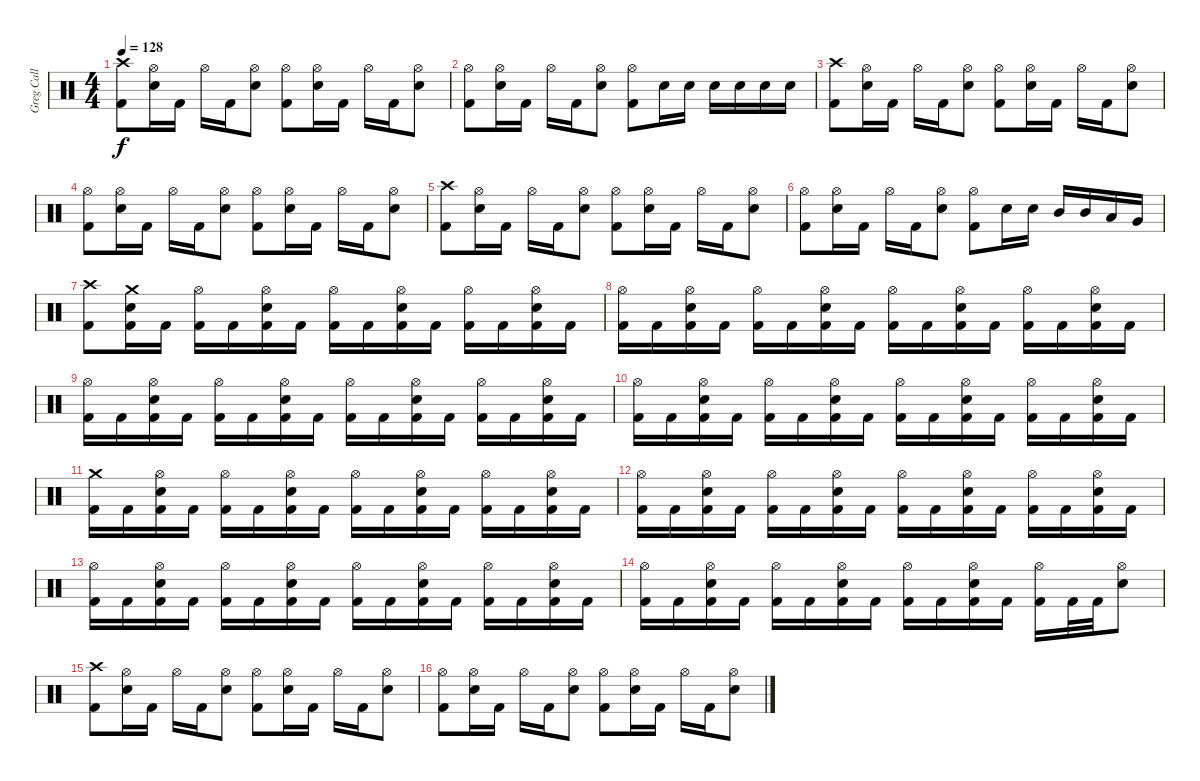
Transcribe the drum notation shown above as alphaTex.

\track ("Greg Call (Drums)" "Greg Call ") {instrument percussion}
\staff {score}
\articulation defaults
\ts (4 4)
\tempo 128
\clef neutral
\ks c
("Crash high (hit)" "Kick (hit) 2").8{dy f} ("Hi-Hat (open)" "Snare (hit) 2").16 "Kick (hit) 2".16 "Hi-Hat (open)".16 "Kick (hit) 2".16 ("Hi-Hat (open)" "Snare (hit) 2").8 ("Hi-Hat (open)" "Kick (hit) 2").8 ("Hi-Hat (open)" "Snare (hit) 2").16 "Kick (hit) 2".16 "Hi-Hat (open)".16 "Kick (hit) 2".16 ("Hi-Hat (open)" "Snare (hit) 2").8 |
("Hi-Hat (open)" "Kick (hit) 2").8 ("Hi-Hat (open)" "Snare (hit) 2").16 "Kick (hit) 2".16 "Hi-Hat (open)".16 "Kick (hit) 2".16 ("Hi-Hat (open)" "Snare (hit) 2").8 ("Hi-Hat (open)" "Kick (hit) 2").8 "Snare (hit) 2".16 "Snare (hit) 2".16 "Snare (hit) 2".16 "Snare (hit) 2".16 "Snare (hit) 2".16 "Snare (hit) 2".16 |
("Crash high (hit)" "Kick (hit) 2").8 ("Hi-Hat (open)" "Snare (hit) 2").16 "Kick (hit) 2".16 "Hi-Hat (open)".16 "Kick (hit) 2".16 ("Hi-Hat (open)" "Snare (hit) 2").8 ("Hi-Hat (open)" "Kick (hit) 2").8 ("Hi-Hat (open)" "Snare (hit) 2").16 "Kick (hit) 2".16 "Hi-Hat (open)".16 "Kick (hit) 2".16 ("Hi-Hat (open)" "Snare (hit) 2").8 |
("Hi-Hat (open)" "Kick (hit) 2").8 ("Hi-Hat (open)" "Snare (hit) 2").16 "Kick (hit) 2".16 "Hi-Hat (open)".16 "Kick (hit) 2".16 ("Hi-Hat (open)" "Snare (hit) 2").8 ("Hi-Hat (open)" "Kick (hit) 2").8 ("Hi-Hat (open)" "Snare (hit) 2").16 "Kick (hit) 2".16 "Hi-Hat (open)".16 "Kick (hit) 2".16 ("Hi-Hat (open)" "Snare (hit) 2").8 |
("Crash high (hit)" "Kick (hit) 2").8 ("Hi-Hat (open)" "Snare (hit) 2").16 "Kick (hit) 2".16 "Hi-Hat (open)".16 "Kick (hit) 2".16 ("Hi-Hat (open)" "Snare (hit) 2").8 ("Hi-Hat (open)" "Kick (hit) 2").8 ("Hi-Hat (open)" "Snare (hit) 2").16 "Kick (hit) 2".16 "Hi-Hat (open)".16 "Kick (hit) 2".16 ("Hi-Hat (open)" "Snare (hit) 2").8 |
("Hi-Hat (open)" "Kick (hit) 2").8 ("Hi-Hat (open)" "Snare (hit) 2").16 "Kick (hit) 2".16 "Hi-Hat (open)".16 "Kick (hit) 2".16 ("Hi-Hat (open)" "Snare (hit) 2").8 ("Hi-Hat (open)" "Kick (hit) 2").8 "Snare (hit) 2".16 "Snare (hit) 2".16 "Mid Tom (hit)".16 "Mid Tom (hit)".16 "Low Tom (hit)".16 "Very Low Tom (hit)".16 |
("Kick (hit) 2" "Crash high (hit)").8 ("Crash medium (hit)" "Snare (hit) 2" "Kick (hit) 2").16 "Kick (hit) 2".16 ("Hi-Hat (open)" "Kick (hit) 2").16 "Kick (hit) 2".16 ("Kick (hit) 2" "Hi-Hat (open)" "Snare (hit) 2").16 "Kick (hit) 2".16 ("Hi-Hat (open)" "Kick (hit) 2").16 "Kick (hit) 2".16 ("Hi-Hat (open)" "Snare (hit) 2" "Kick (hit) 2").16 "Kick (hit) 2".16 ("Hi-Hat (open)" "Kick (hit) 2").16 "Kick (hit) 2".16 ("Hi-Hat (open)" "Snare (hit) 2" "Kick (hit) 2").16 "Kick (hit) 2".16 |
("Hi-Hat (open)" "Kick (hit) 2").16 "Kick (hit) 2".16 ("Hi-Hat (open)" "Snare (hit) 2" "Kick (hit) 2").16 "Kick (hit) 2".16 ("Hi-Hat (open)" "Kick (hit) 2").16 "Kick (hit) 2".16 ("Snare (hit) 2" "Hi-Hat (open)" "Kick (hit) 2").16 "Kick (hit) 2".16 ("Hi-Hat (open)" "Kick (hit) 2").16 "Kick (hit) 2".16 ("Snare (hit) 2" "Hi-Hat (open)" "Kick (hit) 2").16 "Kick (hit) 2".16 ("Hi-Hat (open)" "Kick (hit) 2").16 "Kick (hit) 2".16 ("Snare (hit) 2" "Hi-Hat (open)" "Kick (hit) 2").16 "Kick (hit) 2".16 |
("Hi-Hat (open)" "Kick (hit) 2").16 "Kick (hit) 2".16 ("Hi-Hat (open)" "Snare (hit) 2" "Kick (hit) 2").16 "Kick (hit) 2".16 ("Hi-Hat (open)" "Kick (hit) 2").16 "Kick (hit) 2".16 ("Snare (hit) 2" "Hi-Hat (open)" "Kick (hit) 2").16 "Kick (hit) 2".16 ("Hi-Hat (open)" "Kick (hit) 2").16 "Kick (hit) 2".16 ("Snare (hit) 2" "Hi-Hat (open)" "Kick (hit) 2").16 "Kick (hit) 2".16 ("Hi-Hat (open)" "Kick (hit) 2").16 "Kick (hit) 2".16 ("Snare (hit) 2" "Hi-Hat (open)" "Kick (hit) 2").16 "Kick (hit) 2".16 |
("Hi-Hat (open)" "Kick (hit) 2").16 "Kick (hit) 2".16 ("Hi-Hat (open)" "Snare (hit) 2" "Kick (hit) 2").16 "Kick (hit) 2".16 ("Hi-Hat (open)" "Kick (hit) 2").16 "Kick (hit) 2".16 ("Snare (hit) 2" "Hi-Hat (open)" "Kick (hit) 2").16 "Kick (hit) 2".16 ("Hi-Hat (open)" "Kick (hit) 2").16 "Kick (hit) 2".16 ("Snare (hit) 2" "Hi-Hat (open)" "Kick (hit) 2").16 "Kick (hit) 2".16 ("Hi-Hat (open)" "Kick (hit) 2").16 "Kick (hit) 2".16 ("Snare (hit) 2" "Hi-Hat (open)" "Kick (hit) 2").16 "Kick (hit) 2".16 |
("Crash medium (hit)" "Kick (hit) 2").16 "Kick (hit) 2".16 ("Hi-Hat (open)" "Snare (hit) 2" "Kick (hit) 2").16 "Kick (hit) 2".16 ("Hi-Hat (open)" "Kick (hit) 2").16 "Kick (hit) 2".16 ("Snare (hit) 2" "Hi-Hat (open)" "Kick (hit) 2").16 "Kick (hit) 2".16 ("Hi-Hat (open)" "Kick (hit) 2").16 "Kick (hit) 2".16 ("Snare (hit) 2" "Hi-Hat (open)" "Kick (hit) 2").16 "Kick (hit) 2".16 ("Hi-Hat (open)" "Kick (hit) 2").16 "Kick (hit) 2".16 ("Snare (hit) 2" "Hi-Hat (open)" "Kick (hit) 2").16 "Kick (hit) 2".16 |
("Hi-Hat (open)" "Kick (hit) 2").16 "Kick (hit) 2".16 ("Hi-Hat (open)" "Snare (hit) 2" "Kick (hit) 2").16 "Kick (hit) 2".16 ("Hi-Hat (open)" "Kick (hit) 2").16 "Kick (hit) 2".16 ("Snare (hit) 2" "Hi-Hat (open)" "Kick (hit) 2").16 "Kick (hit) 2".16 ("Hi-Hat (open)" "Kick (hit) 2").16 "Kick (hit) 2".16 ("Snare (hit) 2" "Hi-Hat (open)" "Kick (hit) 2").16 "Kick (hit) 2".16 ("Hi-Hat (open)" "Kick (hit) 2").16 "Kick (hit) 2".16 ("Snare (hit) 2" "Hi-Hat (open)" "Kick (hit) 2").16 "Kick (hit) 2".16 |
("Hi-Hat (open)" "Kick (hit) 2").16 "Kick (hit) 2".16 ("Hi-Hat (open)" "Snare (hit) 2" "Kick (hit) 2").16 "Kick (hit) 2".16 ("Hi-Hat (open)" "Kick (hit) 2").16 "Kick (hit) 2".16 ("Snare (hit) 2" "Hi-Hat (open)" "Kick (hit) 2").16 "Kick (hit) 2".16 ("Hi-Hat (open)" "Kick (hit) 2").16 "Kick (hit) 2".16 ("Snare (hit) 2" "Hi-Hat (open)" "Kick (hit) 2").16 "Kick (hit) 2".16 ("Hi-Hat (open)" "Kick (hit) 2").16 "Kick (hit) 2".16 ("Snare (hit) 2" "Hi-Hat (open)" "Kick (hit) 2").16 "Kick (hit) 2".16 |
("Hi-Hat (open)" "Kick (hit) 2").16 "Kick (hit) 2".16 ("Hi-Hat (open)" "Snare (hit) 2" "Kick (hit) 2").16 "Kick (hit) 2".16 ("Hi-Hat (open)" "Kick (hit) 2").16 "Kick (hit) 2".16 ("Snare (hit) 2" "Hi-Hat (open)" "Kick (hit) 2").16 "Kick (hit) 2".16 ("Hi-Hat (open)" "Kick (hit) 2").16 "Kick (hit) 2".16 ("Snare (hit) 2" "Hi-Hat (open)" "Kick (hit) 2").16 "Kick (hit) 2".16 ("Hi-Hat (open)" "Kick (hit) 2").16 "Kick (hit) 2".32 "Kick (hit) 2".32 ("Hi-Hat (open)" "Snare (hit) 2").8 |
("Crash high (hit)" "Kick (hit) 2").8 ("Hi-Hat (open)" "Snare (hit) 2").16 "Kick (hit) 2".16 "Hi-Hat (open)".16 "Kick (hit) 2".16 ("Hi-Hat (open)" "Snare (hit) 2").8 ("Hi-Hat (open)" "Kick (hit) 2").8 ("Hi-Hat (open)" "Snare (hit) 2").16 "Kick (hit) 2".16 "Hi-Hat (open)".16 "Kick (hit) 2".16 ("Hi-Hat (open)" "Snare (hit) 2").8 |
("Hi-Hat (open)" "Kick (hit) 2").8 ("Hi-Hat (open)" "Snare (hit) 2").16 "Kick (hit) 2".16 "Hi-Hat (open)".16 "Kick (hit) 2".16 ("Hi-Hat (open)" "Snare (hit) 2").8 ("Hi-Hat (open)" "Kick (hit) 2").8 ("Hi-Hat (open)" "Snare (hit) 2").16 "Kick (hit) 2".16 "Hi-Hat (open)".16 "Kick (hit) 2".16 ("Hi-Hat (open)" "Snare (hit) 2").8
